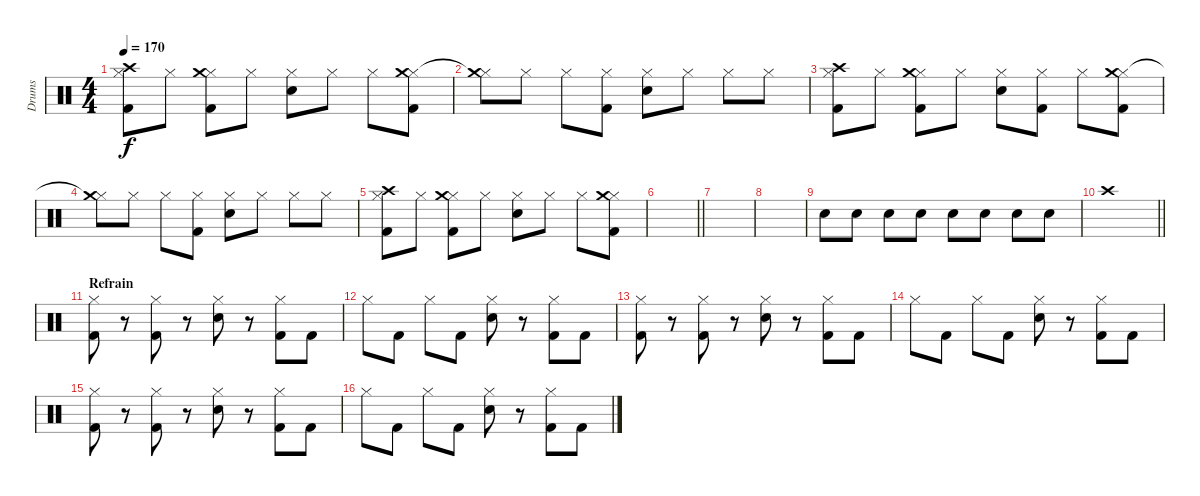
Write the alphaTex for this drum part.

\track ("Drums" "Drums") {instrument percussion}
\staff {score}
\articulation defaults
\ts (4 4)
\tempo 170
\clef neutral
\ks c
("Hi-Hat (closed)" "Crash high (hit)" "Kick (hit) 2").8{dy f} "Hi-Hat (closed)".8 ("Hi-Hat (closed)" "Crash medium (hit)" "Kick (hit) 2").8 "Hi-Hat (closed)".8 ("Hi-Hat (closed)" "Electric Snare (hit)").8 "Hi-Hat (closed)".8 "Hi-Hat (closed)".8 ("Hi-Hat (closed)" "Crash medium (hit)" "Kick (hit) 2").8 |
("Hi-Hat (closed)" "Crash medium (hit)"{t}).8 "Hi-Hat (closed)".8 "Hi-Hat (closed)".8 ("Hi-Hat (closed)" "Kick (hit) 2").8 ("Hi-Hat (closed)" "Electric Snare (hit)").8 "Hi-Hat (closed)".8 "Hi-Hat (closed)".8 "Hi-Hat (closed)".8 |
("Hi-Hat (closed)" "Crash high (hit)" "Kick (hit) 2").8 "Hi-Hat (closed)".8 ("Hi-Hat (closed)" "Crash medium (hit)" "Kick (hit) 2").8 "Hi-Hat (closed)".8 ("Hi-Hat (closed)" "Electric Snare (hit)").8 ("Hi-Hat (closed)" "Kick (hit) 2").8 "Hi-Hat (closed)".8 ("Hi-Hat (closed)" "Crash medium (hit)" "Kick (hit) 2").8 |
("Hi-Hat (closed)" "Crash medium (hit)"{t}).8 "Hi-Hat (closed)".8 "Hi-Hat (closed)".8 ("Hi-Hat (closed)" "Kick (hit) 2").8 ("Hi-Hat (closed)" "Electric Snare (hit)").8 "Hi-Hat (closed)".8 "Hi-Hat (closed)".8 "Hi-Hat (closed)".8 |
("Hi-Hat (closed)" "Crash high (hit)" "Kick (hit) 2").8 "Hi-Hat (closed)".8 ("Hi-Hat (closed)" "Crash medium (hit)" "Kick (hit) 2").8 "Hi-Hat (closed)".8 ("Hi-Hat (closed)" "Electric Snare (hit)").8 "Hi-Hat (closed)".8 "Hi-Hat (closed)".8 ("Hi-Hat (closed)" "Crash medium (hit)" "Kick (hit) 2").8 |
\barLineRight lightlight
|
|
|
"Electric Snare (hit)".8 "Electric Snare (hit)".8 "Electric Snare (hit)".8 "Electric Snare (hit)".8 "Electric Snare (hit)".8 "Electric Snare (hit)".8 "Electric Snare (hit)".8 "Electric Snare (hit)".8 |
\barLineRight lightlight "Crash high (hit)".1
|
\section ("" "Refrain")
("Hi-Hat (closed)" "Kick (hit) 2").8 r.8 ("Hi-Hat (closed)" "Kick (hit) 2").8 r.8 ("Hi-Hat (closed)" "Electric Snare (hit)").8 r.8 ("Hi-Hat (closed)" "Kick (hit) 2").8 "Kick (hit) 2".8 |
"Hi-Hat (closed)".8 "Kick (hit) 2".8 "Hi-Hat (closed)".8 "Kick (hit) 2".8 ("Hi-Hat (closed)" "Electric Snare (hit)").8 r.8 ("Hi-Hat (closed)" "Kick (hit) 2").8 "Kick (hit) 2".8 |
("Hi-Hat (closed)" "Kick (hit) 2").8 r.8 ("Hi-Hat (closed)" "Kick (hit) 2").8 r.8 ("Hi-Hat (closed)" "Electric Snare (hit)").8 r.8 ("Hi-Hat (closed)" "Kick (hit) 2").8 "Kick (hit) 2".8 |
"Hi-Hat (closed)".8 "Kick (hit) 2".8 "Hi-Hat (closed)".8 "Kick (hit) 2".8 ("Hi-Hat (closed)" "Electric Snare (hit)").8 r.8 ("Hi-Hat (closed)" "Kick (hit) 2").8 "Kick (hit) 2".8 |
("Hi-Hat (closed)" "Kick (hit) 2").8 r.8 ("Hi-Hat (closed)" "Kick (hit) 2").8 r.8 ("Hi-Hat (closed)" "Electric Snare (hit)").8 r.8 ("Hi-Hat (closed)" "Kick (hit) 2").8 "Kick (hit) 2".8 |
"Hi-Hat (closed)".8 "Kick (hit) 2".8 "Hi-Hat (closed)".8 "Kick (hit) 2".8 ("Hi-Hat (closed)" "Electric Snare (hit)").8 r.8 ("Hi-Hat (closed)" "Kick (hit) 2").8 "Kick (hit) 2".8
